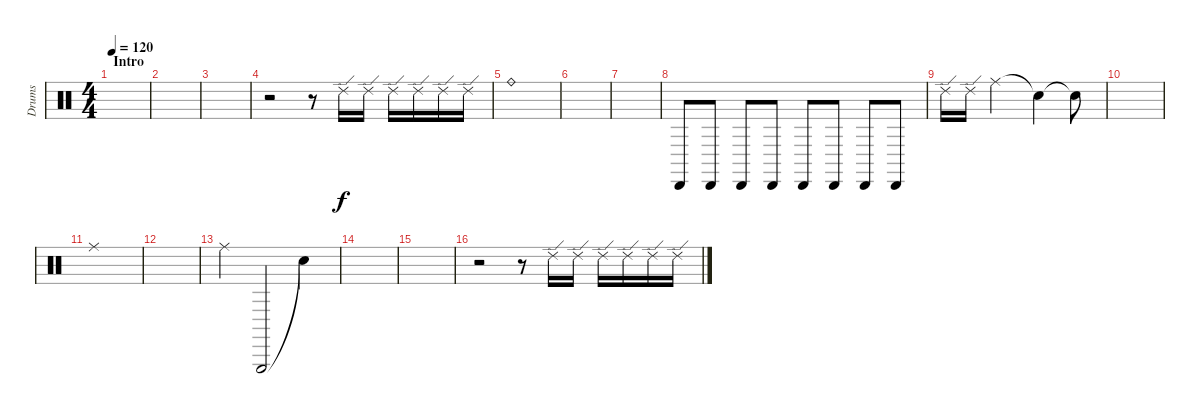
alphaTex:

\track ("Drums" "Drums") {instrument percussion}
\staff {score}
\articulation defaults
\ts (4 4)
\section ("" "Intro")
\tempo 120
\clef neutral
\ks c
|
|
|
r.2 r.8 "Ride (edge) 2".16 "Ride (edge) 2".16 "Ride (edge) 2".16 "Ride (edge) 2".16 "Ride (edge) 2".16 "Ride (edge) 2".16 |
"Ride (bell)".1 |
|
|
"Cabasa (hit)".8 "Cabasa (hit)".8 "Cabasa (hit)".8 "Cabasa (hit)".8 "Cabasa (hit)".8 "Cabasa (hit)".8 "Cabasa (hit)".8 "Cabasa (hit)".8 |
"Ride (edge) 2".16 "Ride (edge) 2".16 "Ride (middle)".2 "Snare (hit)"{t}.4 "Snare (hit)"{t}.8 |
|
"Ride (middle)".1 |
|
"Ride (middle)".4 "Triangle (hit)".2 "Snare (hit)"{t}.4 |
|
|
r.2 r.8 "Ride (edge) 2".16 "Ride (edge) 2".16 "Ride (edge) 2".16 "Ride (edge) 2".16 "Ride (edge) 2".16 "Ride (edge) 2".16
